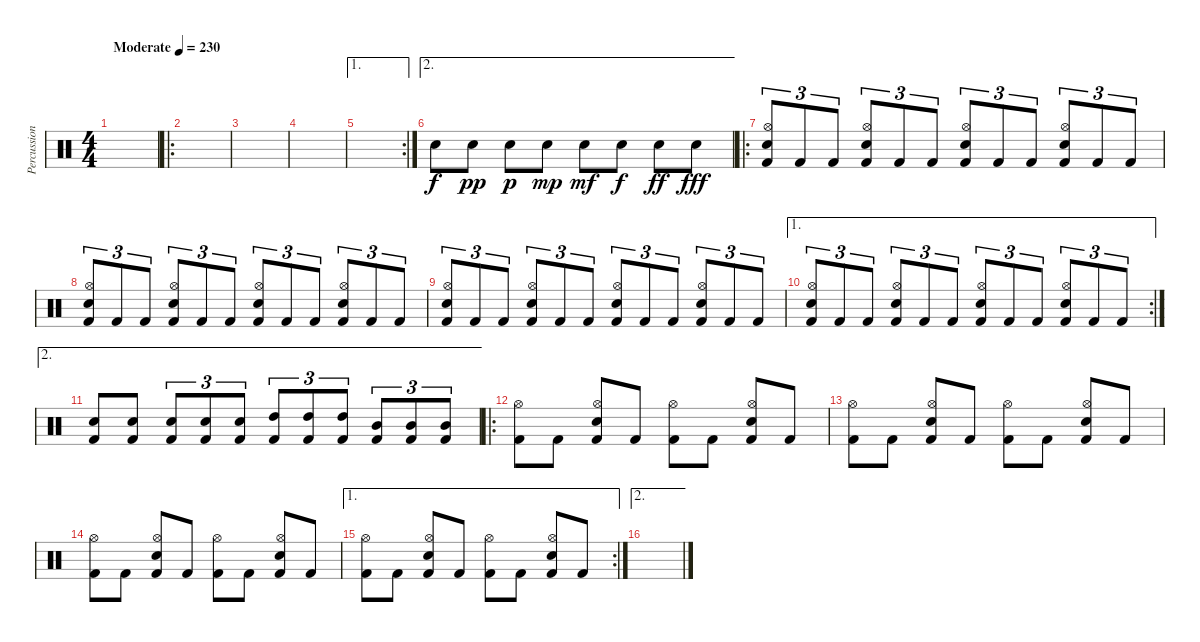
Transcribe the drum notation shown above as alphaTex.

\track ("Percussion" "Percussion") {instrument percussion}
\staff {score}
\articulation defaults
\ts (4 4)
\tempo (230 "Moderate")
\clef neutral
\ks c
|
\ro
|
|
|
\ae 1
\rc 2
|
\ae 2 "Electric Snare (hit)".8 "Electric Snare (hit)".8{dy pp} "Electric Snare (hit)".8{dy p} "Electric Snare (hit)".8{dy mp} "Electric Snare (hit)".8{dy mf} "Electric Snare (hit)".8{dy f} "Electric Snare (hit)".8{dy ff} "Electric Snare (hit)".8{dy fff}
|
\ro
("Hi-Hat (open)" "Electric Snare (hit)" "Kick (hit) 2").8{tu (3 2)} "Kick (hit) 2".8{tu (3 2)} "Kick (hit) 2".8{tu (3 2)} ("Hi-Hat (open)" "Electric Snare (hit)" "Kick (hit) 2").8{tu (3 2)} "Kick (hit) 2".8{tu (3 2)} "Kick (hit) 2".8{tu (3 2)} ("Hi-Hat (open)" "Electric Snare (hit)" "Kick (hit) 2").8{tu (3 2)} "Kick (hit) 2".8{tu (3 2)} "Kick (hit) 2".8{tu (3 2)} ("Hi-Hat (open)" "Electric Snare (hit)" "Kick (hit) 2").8{tu (3 2)} "Kick (hit) 2".8{tu (3 2)} "Kick (hit) 2".8{tu (3 2)} |
("Hi-Hat (open)" "Electric Snare (hit)" "Kick (hit) 2").8{tu (3 2)} "Kick (hit) 2".8{tu (3 2)} "Kick (hit) 2".8{tu (3 2)} ("Hi-Hat (open)" "Electric Snare (hit)" "Kick (hit) 2").8{tu (3 2)} "Kick (hit) 2".8{tu (3 2)} "Kick (hit) 2".8{tu (3 2)} ("Hi-Hat (open)" "Electric Snare (hit)" "Kick (hit) 2").8{tu (3 2)} "Kick (hit) 2".8{tu (3 2)} "Kick (hit) 2".8{tu (3 2)} ("Hi-Hat (open)" "Electric Snare (hit)" "Kick (hit) 2").8{tu (3 2)} "Kick (hit) 2".8{tu (3 2)} "Kick (hit) 2".8{tu (3 2)} |
("Hi-Hat (open)" "Electric Snare (hit)" "Kick (hit) 2").8{tu (3 2)} "Kick (hit) 2".8{tu (3 2)} "Kick (hit) 2".8{tu (3 2)} ("Hi-Hat (open)" "Electric Snare (hit)" "Kick (hit) 2").8{tu (3 2)} "Kick (hit) 2".8{tu (3 2)} "Kick (hit) 2".8{tu (3 2)} ("Hi-Hat (open)" "Electric Snare (hit)" "Kick (hit) 2").8{tu (3 2)} "Kick (hit) 2".8{tu (3 2)} "Kick (hit) 2".8{tu (3 2)} ("Hi-Hat (open)" "Electric Snare (hit)" "Kick (hit) 2").8{tu (3 2)} "Kick (hit) 2".8{tu (3 2)} "Kick (hit) 2".8{tu (3 2)} |
\ae 1
\rc 2
("Hi-Hat (open)" "Electric Snare (hit)" "Kick (hit) 2").8{tu (3 2)} "Kick (hit) 2".8{tu (3 2)} "Kick (hit) 2".8{tu (3 2)} ("Hi-Hat (open)" "Electric Snare (hit)" "Kick (hit) 2").8{tu (3 2)} "Kick (hit) 2".8{tu (3 2)} "Kick (hit) 2".8{tu (3 2)} ("Hi-Hat (open)" "Electric Snare (hit)" "Kick (hit) 2").8{tu (3 2)} "Kick (hit) 2".8{tu (3 2)} "Kick (hit) 2".8{tu (3 2)} ("Hi-Hat (open)" "Electric Snare (hit)" "Kick (hit) 2").8{tu (3 2)} "Kick (hit) 2".8{tu (3 2)} "Kick (hit) 2".8{tu (3 2)} |
\ae 2
("Electric Snare (hit)" "Kick (hit) 2").8 ("Electric Snare (hit)" "Kick (hit) 2").8 ("Electric Snare (hit)" "Kick (hit) 2").8{tu (3 2)} ("Electric Snare (hit)" "Kick (hit) 2").8{tu (3 2)} ("Electric Snare (hit)" "Kick (hit) 2").8{tu (3 2)} ("High Tom (hit)" "Kick (hit) 2").8{tu (3 2)} ("High Tom (hit)" "Kick (hit) 2").8{tu (3 2)} ("High Tom (hit)" "Kick (hit) 2").8{tu (3 2)} ("Mid Tom (hit)" "Kick (hit) 2").8{tu (3 2)} ("Mid Tom (hit)" "Kick (hit) 2").8{tu (3 2)} ("Mid Tom (hit)" "Kick (hit) 2").8{tu (3 2)} |
\ro
("Hi-Hat (open)" "Kick (hit) 2").8 "Kick (hit) 2".8 ("Hi-Hat (open)" "Electric Snare (hit)" "Kick (hit) 2").8 "Kick (hit) 2".8 ("Hi-Hat (open)" "Kick (hit) 2").8 "Kick (hit) 2".8 ("Hi-Hat (open)" "Electric Snare (hit)" "Kick (hit) 2").8 "Kick (hit) 2".8 |
("Hi-Hat (open)" "Kick (hit) 2").8 "Kick (hit) 2".8 ("Hi-Hat (open)" "Electric Snare (hit)" "Kick (hit) 2").8 "Kick (hit) 2".8 ("Hi-Hat (open)" "Kick (hit) 2").8 "Kick (hit) 2".8 ("Hi-Hat (open)" "Electric Snare (hit)" "Kick (hit) 2").8 "Kick (hit) 2".8 |
("Hi-Hat (open)" "Kick (hit) 2").8 "Kick (hit) 2".8 ("Hi-Hat (open)" "Electric Snare (hit)" "Kick (hit) 2").8 "Kick (hit) 2".8 ("Hi-Hat (open)" "Kick (hit) 2").8 "Kick (hit) 2".8 ("Hi-Hat (open)" "Electric Snare (hit)" "Kick (hit) 2").8 "Kick (hit) 2".8 |
\ae 1
\rc 2
("Hi-Hat (open)" "Kick (hit) 2").8 "Kick (hit) 2".8 ("Hi-Hat (open)" "Electric Snare (hit)" "Kick (hit) 2").8 "Kick (hit) 2".8 ("Hi-Hat (open)" "Kick (hit) 2").8 "Kick (hit) 2".8 ("Hi-Hat (open)" "Electric Snare (hit)" "Kick (hit) 2").8 "Kick (hit) 2".8 |
\ae 2
